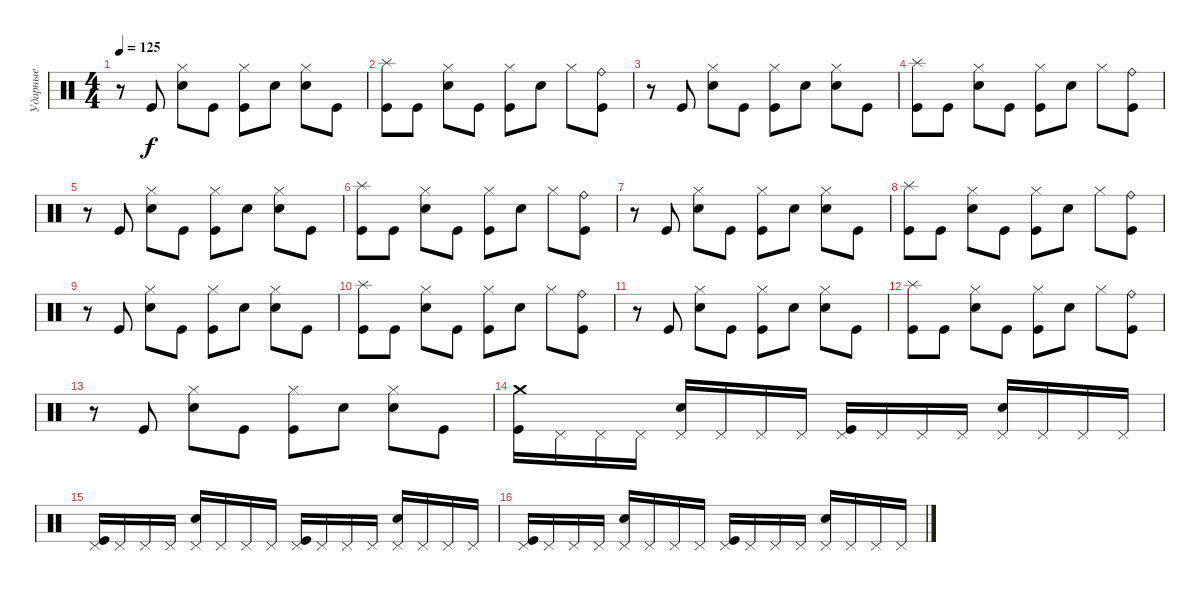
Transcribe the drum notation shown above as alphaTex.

\track ("Ударные" "Ударные") {instrument percussion}
\staff {score}
\articulation defaults
\ts (4 4)
\tempo 125
\clef neutral
\ks c
r.8{dy f} "Kick (hit)".8 ("Hi-Hat (closed)" "Snare (hit) 2").8 "Kick (hit)".8 ("Hi-Hat (closed)" "Kick (hit)").8 "Snare (hit) 2".8 ("Hi-Hat (closed)" "Snare (hit) 2").8 "Kick (hit)".8 |
("Splash (hit)" "Kick (hit)").8 "Kick (hit)".8 ("Hi-Hat (closed)" "Snare (hit) 2").8 "Kick (hit)".8 ("Hi-Hat (closed)" "Kick (hit)").8 "Snare (hit) 2".8 "Hi-Hat (closed)".8 ("Ride (bell)" "Kick (hit)").8 |
r.8 "Kick (hit)".8 ("Hi-Hat (closed)" "Snare (hit) 2").8 "Kick (hit)".8 ("Hi-Hat (closed)" "Kick (hit)").8 "Snare (hit) 2".8 ("Hi-Hat (closed)" "Snare (hit) 2").8 "Kick (hit)".8 |
("Splash (hit)" "Kick (hit)").8 "Kick (hit)".8 ("Hi-Hat (closed)" "Snare (hit) 2").8 "Kick (hit)".8 ("Hi-Hat (closed)" "Kick (hit)").8 "Snare (hit) 2".8 "Hi-Hat (closed)".8 ("Ride (bell)" "Kick (hit)").8 |
r.8 "Kick (hit)".8 ("Hi-Hat (closed)" "Snare (hit) 2").8 "Kick (hit)".8 ("Hi-Hat (closed)" "Kick (hit)").8 "Snare (hit) 2".8 ("Hi-Hat (closed)" "Snare (hit) 2").8 "Kick (hit)".8 |
("Splash (hit)" "Kick (hit)").8 "Kick (hit)".8 ("Hi-Hat (closed)" "Snare (hit) 2").8 "Kick (hit)".8 ("Hi-Hat (closed)" "Kick (hit)").8 "Snare (hit) 2".8 "Hi-Hat (closed)".8 ("Ride (bell)" "Kick (hit)").8 |
r.8 "Kick (hit)".8 ("Hi-Hat (closed)" "Snare (hit) 2").8 "Kick (hit)".8 ("Hi-Hat (closed)" "Kick (hit)").8 "Snare (hit) 2".8 ("Hi-Hat (closed)" "Snare (hit) 2").8 "Kick (hit)".8 |
("Splash (hit)" "Kick (hit)").8 "Kick (hit)".8 ("Hi-Hat (closed)" "Snare (hit) 2").8 "Kick (hit)".8 ("Hi-Hat (closed)" "Kick (hit)").8 "Snare (hit) 2".8 "Hi-Hat (closed)".8 ("Ride (bell)" "Kick (hit)").8 |
r.8 "Kick (hit)".8 ("Hi-Hat (closed)" "Snare (hit) 2").8 "Kick (hit)".8 ("Hi-Hat (closed)" "Kick (hit)").8 "Snare (hit) 2".8 ("Hi-Hat (closed)" "Snare (hit) 2").8 "Kick (hit)".8 |
("Splash (hit)" "Kick (hit)").8 "Kick (hit)".8 ("Hi-Hat (closed)" "Snare (hit) 2").8 "Kick (hit)".8 ("Hi-Hat (closed)" "Kick (hit)").8 "Snare (hit) 2".8 "Hi-Hat (closed)".8 ("Ride (bell)" "Kick (hit)").8 |
r.8 "Kick (hit)".8 ("Hi-Hat (closed)" "Snare (hit) 2").8 "Kick (hit)".8 ("Hi-Hat (closed)" "Kick (hit)").8 "Snare (hit) 2".8 ("Hi-Hat (closed)" "Snare (hit) 2").8 "Kick (hit)".8 |
("Splash (hit)" "Kick (hit)").8 "Kick (hit)".8 ("Hi-Hat (closed)" "Snare (hit) 2").8 "Kick (hit)".8 ("Hi-Hat (closed)" "Kick (hit)").8 "Snare (hit) 2".8 "Hi-Hat (closed)".8 ("Ride (bell)" "Kick (hit)").8 |
r.8 "Kick (hit)".8 ("Hi-Hat (closed)" "Snare (hit) 2").8 "Kick (hit)".8 ("Hi-Hat (closed)" "Kick (hit)").8 "Snare (hit) 2".8 ("Hi-Hat (closed)" "Snare (hit) 2").8 "Kick (hit)".8 |
("Crash medium (hit)" "Kick (hit)").16 "Pedal Hi-Hat (hit)".16 "Pedal Hi-Hat (hit)".16 "Pedal Hi-Hat (hit)".16 ("Pedal Hi-Hat (hit)" "Snare (hit) 2").16 "Pedal Hi-Hat (hit)".16 "Pedal Hi-Hat (hit)".16 "Pedal Hi-Hat (hit)".16 ("Pedal Hi-Hat (hit)" "Kick (hit)").16 "Pedal Hi-Hat (hit)".16 "Pedal Hi-Hat (hit)".16 "Pedal Hi-Hat (hit)".16 ("Pedal Hi-Hat (hit)" "Snare (hit) 2").16 "Pedal Hi-Hat (hit)".16 "Pedal Hi-Hat (hit)".16 "Pedal Hi-Hat (hit)".16 |
("Pedal Hi-Hat (hit)" "Kick (hit)").16 "Pedal Hi-Hat (hit)".16 "Pedal Hi-Hat (hit)".16 "Pedal Hi-Hat (hit)".16 ("Pedal Hi-Hat (hit)" "Snare (hit) 2").16 "Pedal Hi-Hat (hit)".16 "Pedal Hi-Hat (hit)".16 "Pedal Hi-Hat (hit)".16 ("Pedal Hi-Hat (hit)" "Kick (hit)").16 "Pedal Hi-Hat (hit)".16 "Pedal Hi-Hat (hit)".16 "Pedal Hi-Hat (hit)".16 ("Pedal Hi-Hat (hit)" "Snare (hit) 2").16 "Pedal Hi-Hat (hit)".16 "Pedal Hi-Hat (hit)".16 "Pedal Hi-Hat (hit)".16 |
("Pedal Hi-Hat (hit)" "Kick (hit)").16 "Pedal Hi-Hat (hit)".16 "Pedal Hi-Hat (hit)".16 "Pedal Hi-Hat (hit)".16 ("Pedal Hi-Hat (hit)" "Snare (hit) 2").16 "Pedal Hi-Hat (hit)".16 "Pedal Hi-Hat (hit)".16 "Pedal Hi-Hat (hit)".16 ("Pedal Hi-Hat (hit)" "Kick (hit)").16 "Pedal Hi-Hat (hit)".16 "Pedal Hi-Hat (hit)".16 "Pedal Hi-Hat (hit)".16 ("Pedal Hi-Hat (hit)" "Snare (hit) 2").16 "Pedal Hi-Hat (hit)".16 "Pedal Hi-Hat (hit)".16 "Pedal Hi-Hat (hit)".16
